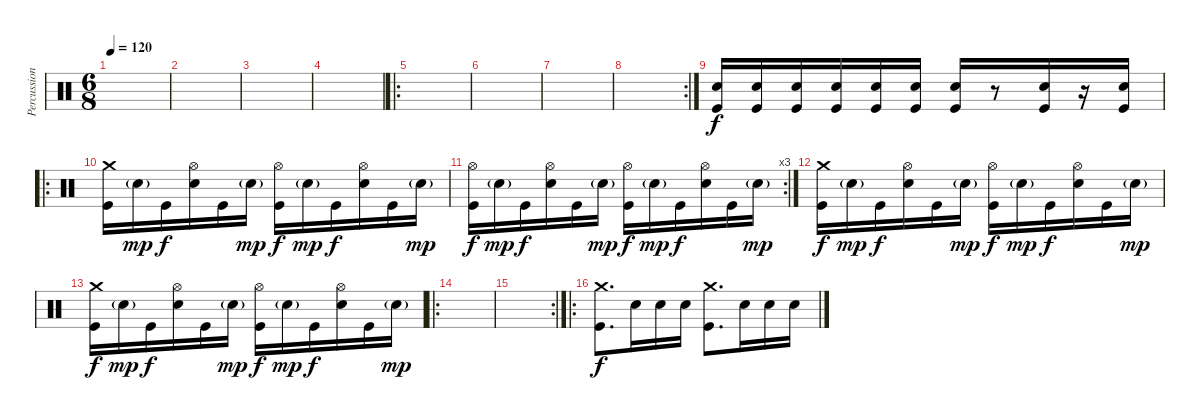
\track ("Percussion" "Percussion") {instrument percussion}
\staff {score}
\articulation defaults
\ts (6 8)
\tempo 120
\clef neutral
\ks c
|
|
|
|
\ro
|
|
|
\rc 2
|
("Snare (hit) 2" "Kick (hit)").16 ("Snare (hit) 2" "Kick (hit)").16 ("Snare (hit) 2" "Kick (hit)").16 ("Snare (hit) 2" "Kick (hit)").16 ("Snare (hit) 2" "Kick (hit)").16 ("Snare (hit) 2" "Kick (hit)").16 ("Snare (hit) 2" "Kick (hit)").16 r.8 ("Snare (hit) 2" "Kick (hit)").16 r.16 ("Snare (hit) 2" "Kick (hit)").16 |
\ro
("Crash medium (hit)" "Kick (hit)").16 "Snare (hit) 2"{g}.16{dy mp} "Kick (hit)".16{dy f} ("Hi-Hat (open)" "Snare (hit) 2").16 "Kick (hit)".16 "Snare (hit) 2"{g}.16{dy mp} ("Hi-Hat (open)" "Kick (hit)").16{dy f} "Snare (hit) 2"{g}.16{dy mp} "Kick (hit)".16{dy f} ("Hi-Hat (open)" "Snare (hit) 2").16 "Kick (hit)".16 "Snare (hit) 2"{g}.16{dy mp} |
\rc 3
("Hi-Hat (open)" "Kick (hit)").16{dy f} "Snare (hit) 2"{g}.16{dy mp} "Kick (hit)".16{dy f} ("Hi-Hat (open)" "Snare (hit) 2").16 "Kick (hit)".16 "Snare (hit) 2"{g}.16{dy mp} ("Hi-Hat (open)" "Kick (hit)").16{dy f} "Snare (hit) 2"{g}.16{dy mp} "Kick (hit)".16{dy f} ("Hi-Hat (open)" "Snare (hit) 2").16 "Kick (hit)".16 "Snare (hit) 2"{g}.16{dy mp} |
("Crash medium (hit)" "Kick (hit)").16{dy f} "Snare (hit) 2"{g}.16{dy mp} "Kick (hit)".16{dy f} ("Hi-Hat (open)" "Snare (hit) 2").16 "Kick (hit)".16 "Snare (hit) 2"{g}.16{dy mp} ("Hi-Hat (open)" "Kick (hit)").16{dy f} "Snare (hit) 2"{g}.16{dy mp} "Kick (hit)".16{dy f} ("Hi-Hat (open)" "Snare (hit) 2").16 "Kick (hit)".16 "Snare (hit) 2"{g}.16{dy mp} |
("Crash medium (hit)" "Kick (hit)").16{dy f} "Snare (hit) 2"{g}.16{dy mp} "Kick (hit)".16{dy f} ("Hi-Hat (open)" "Snare (hit) 2").16 "Kick (hit)".16 "Snare (hit) 2"{g}.16{dy mp} ("Hi-Hat (open)" "Kick (hit)").16{dy f} "Snare (hit) 2"{g}.16{dy mp} "Kick (hit)".16{dy f} ("Hi-Hat (open)" "Snare (hit) 2").16 "Kick (hit)".16 "Snare (hit) 2"{g}.16{dy mp} |
\ro
|
\rc 2
|
\ro
("Crash medium (hit)" "Kick (hit)").8{d dy f} "Snare (hit) 2".16 "Snare (hit) 2".16 "Snare (hit) 2".16 ("Crash medium (hit)" "Kick (hit)").8{d} "Snare (hit) 2".16 "Snare (hit) 2".16 "Snare (hit) 2".16
